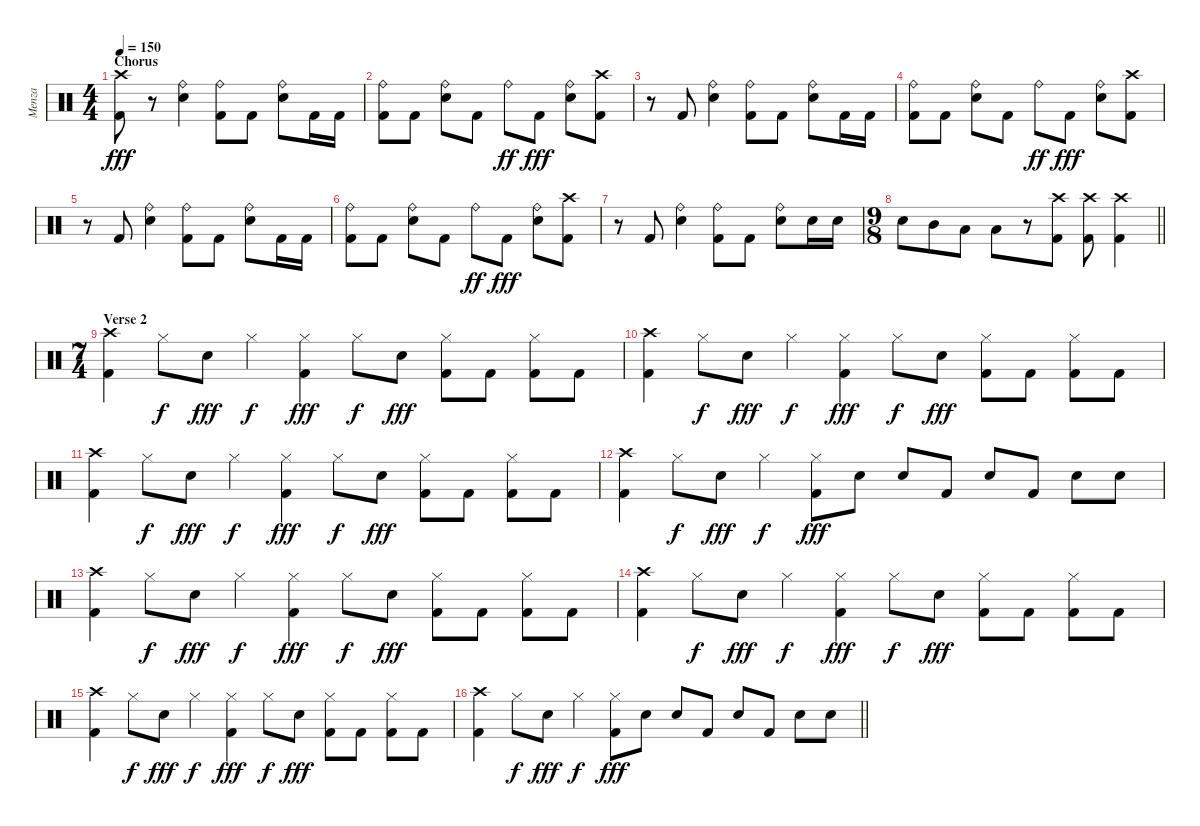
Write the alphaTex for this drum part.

\track ("Menza" "Menza") {instrument percussion}
\staff {score}
\articulation defaults
\ts (4 4)
\section ("" "Chorus")
\tempo 150
\clef neutral
\ks c
("Crash high (hit)" "Kick (hit) 2").8{dy fff} r.8 ("Ride (bell)" "Snare (hit) 2").4 ("Ride (bell)" "Kick (hit) 2").8 "Kick (hit) 2".8 ("Ride (bell)" "Snare (hit) 2").8 "Kick (hit) 2".16 "Kick (hit) 2".16 |
("Ride (bell)" "Kick (hit) 2").8 "Kick (hit) 2".8 ("Ride (bell)" "Snare (hit) 2").8 "Kick (hit) 2".8 "Ride (bell)".8{dy ff} "Kick (hit) 2".8{dy fff} ("Ride (bell)" "Snare (hit) 2").8 ("Crash high (hit)" "Kick (hit) 2").8 |
r.8 "Kick (hit) 2".8 ("Ride (bell)" "Snare (hit) 2").4 ("Ride (bell)" "Kick (hit) 2").8 "Kick (hit) 2".8 ("Ride (bell)" "Snare (hit) 2").8 "Kick (hit) 2".16 "Kick (hit) 2".16 |
("Ride (bell)" "Kick (hit) 2").8 "Kick (hit) 2".8 ("Ride (bell)" "Snare (hit) 2").8 "Kick (hit) 2".8 "Ride (bell)".8{dy ff} "Kick (hit) 2".8{dy fff} ("Ride (bell)" "Snare (hit) 2").8 ("Crash high (hit)" "Kick (hit) 2").8 |
r.8 "Kick (hit) 2".8 ("Ride (bell)" "Snare (hit) 2").4 ("Ride (bell)" "Kick (hit) 2").8 "Kick (hit) 2".8 ("Ride (bell)" "Snare (hit) 2").8 "Kick (hit) 2".16 "Kick (hit) 2".16 |
("Ride (bell)" "Kick (hit) 2").8 "Kick (hit) 2".8 ("Ride (bell)" "Snare (hit) 2").8 "Kick (hit) 2".8 "Ride (bell)".8{dy ff} "Kick (hit) 2".8{dy fff} ("Ride (bell)" "Snare (hit) 2").8 ("Crash high (hit)" "Kick (hit) 2").8 |
r.8 "Kick (hit) 2".8 ("Ride (bell)" "Snare (hit) 2").4 ("Ride (bell)" "Kick (hit) 2").8 "Kick (hit) 2".8 ("Ride (bell)" "Snare (hit) 2").8 "Snare (hit) 2".16 "Snare (hit) 2".16 |
\ts (9 8)
\barLineRight lightlight "Snare (hit) 2".8 "Mid Tom (hit)".8 "Low Tom (hit)".8 "Low Tom (hit)".8
r.8 ("Crash high (hit)" "Kick (hit) 2").8 ("Crash high (hit)" "Kick (hit) 2").8 ("Crash high (hit)" "Kick (hit) 2").4 |
\ts (7 4)
\section ("" "Verse 2")
("Crash high (hit)" "Kick (hit) 2").4 "Hi-Hat (closed)".8{dy f} "Snare (hit) 2".8{dy fff} "Hi-Hat (closed)".4{dy f} ("Hi-Hat (closed)" "Kick (hit) 2").4{dy fff} "Hi-Hat (closed)".8{dy f} "Snare (hit) 2".8{dy fff} ("Hi-Hat (closed)" "Kick (hit) 2").8 "Kick (hit) 2".8 ("Hi-Hat (closed)" "Kick (hit) 2").8 "Kick (hit) 2".8 |
("Crash high (hit)" "Kick (hit) 2").4 "Hi-Hat (closed)".8{dy f} "Snare (hit) 2".8{dy fff} "Hi-Hat (closed)".4{dy f} ("Hi-Hat (closed)" "Kick (hit) 2").4{dy fff} "Hi-Hat (closed)".8{dy f} "Snare (hit) 2".8{dy fff} ("Hi-Hat (closed)" "Kick (hit) 2").8 "Kick (hit) 2".8 ("Hi-Hat (closed)" "Kick (hit) 2").8 "Kick (hit) 2".8 |
("Crash high (hit)" "Kick (hit) 2").4 "Hi-Hat (closed)".8{dy f} "Snare (hit) 2".8{dy fff} "Hi-Hat (closed)".4{dy f} ("Hi-Hat (closed)" "Kick (hit) 2").4{dy fff} "Hi-Hat (closed)".8{dy f} "Snare (hit) 2".8{dy fff} ("Hi-Hat (closed)" "Kick (hit) 2").8 "Kick (hit) 2".8 ("Hi-Hat (closed)" "Kick (hit) 2").8 "Kick (hit) 2".8 |
("Crash high (hit)" "Kick (hit) 2").4 "Hi-Hat (closed)".8{dy f} "Snare (hit) 2".8{dy fff} "Hi-Hat (closed)".4{dy f} ("Hi-Hat (closed)" "Kick (hit) 2").8{dy fff} "Snare (hit) 2".8 "Snare (hit) 2".8 "Kick (hit) 2".8 "Snare (hit) 2".8 "Kick (hit) 2".8 "Snare (hit) 2".8 "Snare (hit) 2".8 |
("Crash high (hit)" "Kick (hit) 2").4 "Hi-Hat (closed)".8{dy f} "Snare (hit) 2".8{dy fff} "Hi-Hat (closed)".4{dy f} ("Hi-Hat (closed)" "Kick (hit) 2").4{dy fff} "Hi-Hat (closed)".8{dy f} "Snare (hit) 2".8{dy fff} ("Hi-Hat (closed)" "Kick (hit) 2").8 "Kick (hit) 2".8 ("Hi-Hat (closed)" "Kick (hit) 2").8 "Kick (hit) 2".8 |
("Crash high (hit)" "Kick (hit) 2").4 "Hi-Hat (closed)".8{dy f} "Snare (hit) 2".8{dy fff} "Hi-Hat (closed)".4{dy f} ("Hi-Hat (closed)" "Kick (hit) 2").4{dy fff} "Hi-Hat (closed)".8{dy f} "Snare (hit) 2".8{dy fff} ("Hi-Hat (closed)" "Kick (hit) 2").8 "Kick (hit) 2".8 ("Hi-Hat (closed)" "Kick (hit) 2").8 "Kick (hit) 2".8 |
("Crash high (hit)" "Kick (hit) 2").4 "Hi-Hat (closed)".8{dy f} "Snare (hit) 2".8{dy fff} "Hi-Hat (closed)".4{dy f} ("Hi-Hat (closed)" "Kick (hit) 2").4{dy fff} "Hi-Hat (closed)".8{dy f} "Snare (hit) 2".8{dy fff} ("Hi-Hat (closed)" "Kick (hit) 2").8 "Kick (hit) 2".8 ("Hi-Hat (closed)" "Kick (hit) 2").8 "Kick (hit) 2".8 |
\barLineRight lightlight
("Crash high (hit)" "Kick (hit) 2").4 "Hi-Hat (closed)".8{dy f} "Snare (hit) 2".8{dy fff} "Hi-Hat (closed)".4{dy f} ("Hi-Hat (closed)" "Kick (hit) 2").8{dy fff} "Snare (hit) 2".8 "Snare (hit) 2".8 "Kick (hit) 2".8 "Snare (hit) 2".8 "Kick (hit) 2".8 "Snare (hit) 2".8 "Snare (hit) 2".8
